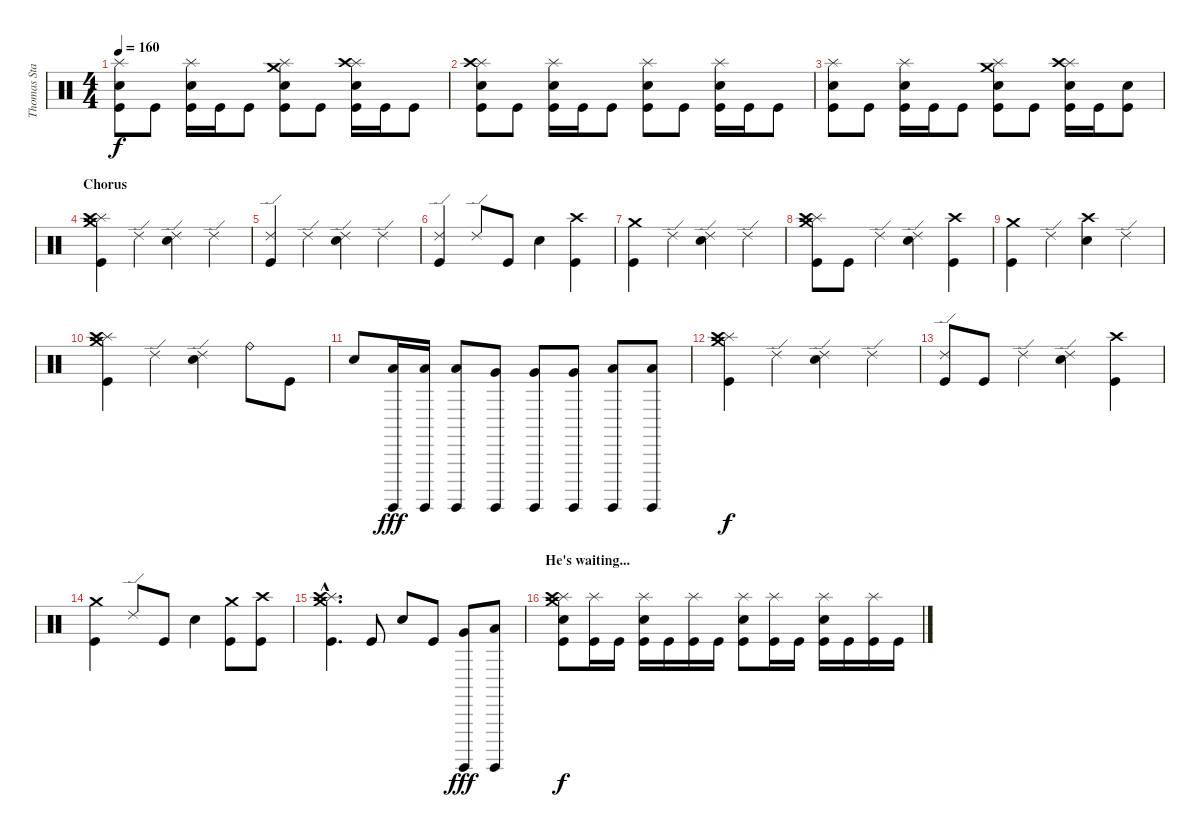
\track ("Thomas Stauch" "Thomas Sta") {instrument percussion}
\staff {score}
\articulation defaults
\ts (4 4)
\tempo 160
\clef neutral
\ks c
("Splash (hit)" "Electric Snare (hit)" "Kick (hit)").8{dy f} "Kick (hit)".8 ("Splash (hit)" "Electric Snare (hit)" "Kick (hit)").16 "Kick (hit)".16 "Kick (hit)".8 ("Crash medium (hit)" "Splash (hit)" "Electric Snare (hit)" "Kick (hit)").8 "Kick (hit)".8 ("Splash (hit)" "Crash high (hit)" "Electric Snare (hit)" "Kick (hit)").16 "Kick (hit)".16 "Kick (hit)".8 |
("Splash (hit)" "Crash high (hit)" "Electric Snare (hit)" "Kick (hit)").8 "Kick (hit)".8 ("Splash (hit)" "Electric Snare (hit)" "Kick (hit)").16 "Kick (hit)".16 "Kick (hit)".8 ("Splash (hit)" "Electric Snare (hit)" "Kick (hit)").8 "Kick (hit)".8 ("Splash (hit)" "Electric Snare (hit)" "Kick (hit)").16 "Kick (hit)".16 "Kick (hit)".8 |
("Splash (hit)" "Electric Snare (hit)" "Kick (hit)").8 "Kick (hit)".8 ("Splash (hit)" "Electric Snare (hit)" "Kick (hit)").16 "Kick (hit)".16 "Kick (hit)".8 ("Crash medium (hit)" "Splash (hit)" "Electric Snare (hit)" "Kick (hit)").8 "Kick (hit)".8 ("Splash (hit)" "Crash high (hit)" "Electric Snare (hit)" "Kick (hit)").16 "Kick (hit)".16 ("Electric Snare (hit)" "Kick (hit)").8 |
\section ("" "Chorus")
("Crash medium (hit)" "Splash (hit)" "Crash high (hit)" "Kick (hit)").4 "Ride (edge) 2".4 ("Ride (edge) 2" "Electric Snare (hit)").4 "Ride (edge) 2".4 |
("Ride (edge) 2" "Kick (hit)").4 "Ride (edge) 2".4 ("Ride (edge) 2" "Electric Snare (hit)").4 "Ride (edge) 2".4 |
("Ride (edge) 2" "Kick (hit)").4 "Ride (edge) 2".8 "Kick (hit)".8 "Electric Snare (hit)".4 ("Crash high (hit)" "Kick (hit)").4 |
("Crash medium (hit)" "Kick (hit)").4 "Ride (edge) 2".4 ("Ride (edge) 2" "Electric Snare (hit)").4 "Ride (edge) 2".4 |
("Crash medium (hit)" "Splash (hit)" "Crash high (hit)" "Kick (hit)").8 "Kick (hit)".8 "Ride (edge) 2".4 ("Ride (edge) 2" "Electric Snare (hit)").4 ("Crash high (hit)" "Kick (hit)").4 |
("Crash medium (hit)" "Kick (hit)").4 "Ride (edge) 2".4 ("Crash high (hit)" "Electric Snare (hit)").4 "Ride (edge) 2".4 |
("Crash medium (hit)" "Splash (hit)" "Crash high (hit)" "Kick (hit)").4 "Ride (edge) 2".4 ("Ride (edge) 2" "Electric Snare (hit)").4 "Ride (bell)".8 "Kick (hit)".8 |
"Electric Snare (hit)".8 ("Surdo (hit)" "Low Tom (hit)").16{dy fff} ("Surdo (hit)" "Low Tom (hit)").16 ("Surdo (hit)" "Low Tom (hit)").8 ("Surdo (hit)" "Very Low Tom (hit)").8 ("Surdo (hit)" "Very Low Tom (hit)").8 ("Surdo (hit)" "Very Low Tom (hit)").8 ("Surdo (hit)" "Low Floor Tom (hit)").8 ("Surdo (hit)" "Low Floor Tom (hit)").8 |
("Crash medium (hit)" "Splash (hit)" "Crash high (hit)" "Kick (hit)").4{dy f} "Ride (edge) 2".4 ("Ride (edge) 2" "Electric Snare (hit)").4 "Ride (edge) 2".4 |
("Ride (edge) 2" "Kick (hit)").8 "Kick (hit)".8 "Ride (edge) 2".4 ("Ride (edge) 2" "Electric Snare (hit)").4 ("Crash high (hit)" "Kick (hit)").4 |
("Crash medium (hit)" "Kick (hit)").4 "Ride (edge) 2".8 "Kick (hit)".8 "Electric Snare (hit)".4 ("Crash medium (hit)" "Kick (hit)").8 ("Crash high (hit)" "Kick (hit)").8 |
("Crash medium (hit)"{hac} "Splash (hit)"{hac} "Crash high (hit)"{hac} "Kick (hit)"{hac}).4{d} "Kick (hit)".8 "Electric Snare (hit)".8 "Kick (hit)".8 ("Surdo (hit)" "Very Low Tom (hit)").8{dy fff} ("Surdo (hit)" "Low Floor Tom (hit)").8 |
\section ("" "He's waiting...")
("Crash medium (hit)" "Splash (hit)" "Crash high (hit)" "Electric Snare (hit)" "Kick (hit)").8{dy f} ("Splash (hit)" "Kick (hit)").16 "Kick (hit)".16 ("Splash (hit)" "Electric Snare (hit)" "Kick (hit)").16 "Kick (hit)".16 ("Splash (hit)" "Kick (hit)").16 "Kick (hit)".16 ("Splash (hit)" "Electric Snare (hit)" "Kick (hit)").8 ("Splash (hit)" "Kick (hit)").16 "Kick (hit)".16 ("Splash (hit)" "Electric Snare (hit)" "Kick (hit)").16 "Kick (hit)".16 ("Splash (hit)" "Kick (hit)").16 "Kick (hit)".16
